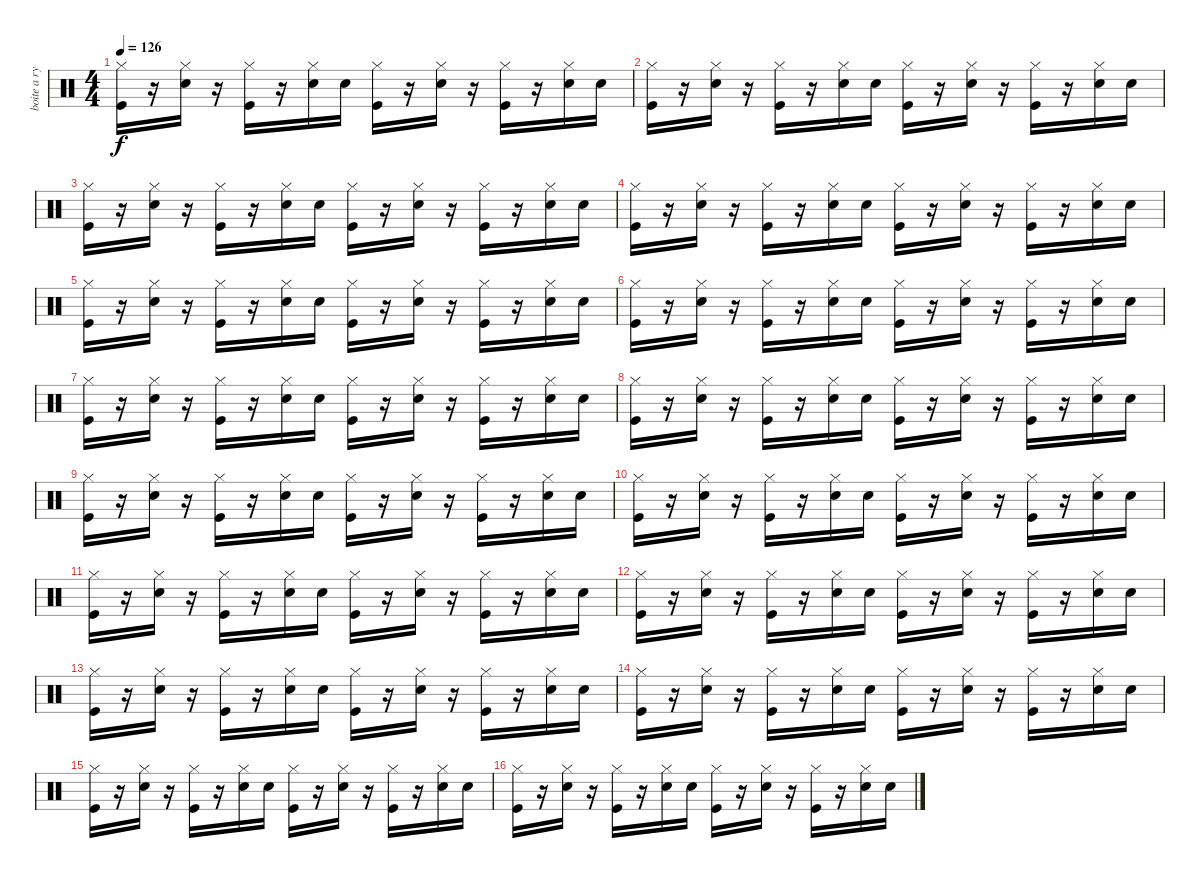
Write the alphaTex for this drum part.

\track ("boite a rythme ( Jean-Francois ) " "boite a ry") {instrument percussion}
\staff {score}
\articulation defaults
\ts (4 4)
\tempo 126
\clef neutral
\ks c
("Hi-Hat (closed)" "Kick (hit)").16{dy f} r.16 ("Hi-Hat (closed)" "Snare (hit) 2").16 r.16 ("Hi-Hat (closed)" "Kick (hit)").16 r.16 ("Hi-Hat (closed)" "Snare (hit) 2").16 "Snare (hit) 2".16 ("Hi-Hat (closed)" "Kick (hit)").16 r.16 ("Hi-Hat (closed)" "Snare (hit) 2").16 r.16 ("Hi-Hat (closed)" "Kick (hit)").16 r.16 ("Hi-Hat (closed)" "Snare (hit) 2").16 "Snare (hit) 2".16 |
("Hi-Hat (closed)" "Kick (hit)").16 r.16 ("Hi-Hat (closed)" "Snare (hit) 2").16 r.16 ("Hi-Hat (closed)" "Kick (hit)").16 r.16 ("Hi-Hat (closed)" "Snare (hit) 2").16 "Snare (hit) 2".16 ("Hi-Hat (closed)" "Kick (hit)").16 r.16 ("Hi-Hat (closed)" "Snare (hit) 2").16 r.16 ("Hi-Hat (closed)" "Kick (hit)").16 r.16 ("Hi-Hat (closed)" "Snare (hit) 2").16 "Snare (hit) 2".16 |
("Hi-Hat (closed)" "Kick (hit)").16 r.16 ("Hi-Hat (closed)" "Snare (hit) 2").16 r.16 ("Hi-Hat (closed)" "Kick (hit)").16 r.16 ("Hi-Hat (closed)" "Snare (hit) 2").16 "Snare (hit) 2".16 ("Hi-Hat (closed)" "Kick (hit)").16 r.16 ("Hi-Hat (closed)" "Snare (hit) 2").16 r.16 ("Hi-Hat (closed)" "Kick (hit)").16 r.16 ("Hi-Hat (closed)" "Snare (hit) 2").16 "Snare (hit) 2".16 |
("Hi-Hat (closed)" "Kick (hit)").16 r.16 ("Hi-Hat (closed)" "Snare (hit) 2").16 r.16 ("Hi-Hat (closed)" "Kick (hit)").16 r.16 ("Hi-Hat (closed)" "Snare (hit) 2").16 "Snare (hit) 2".16 ("Hi-Hat (closed)" "Kick (hit)").16 r.16 ("Hi-Hat (closed)" "Snare (hit) 2").16 r.16 ("Hi-Hat (closed)" "Kick (hit)").16 r.16 ("Hi-Hat (closed)" "Snare (hit) 2").16 "Snare (hit) 2".16 |
("Hi-Hat (closed)" "Kick (hit)").16 r.16 ("Hi-Hat (closed)" "Snare (hit) 2").16 r.16 ("Hi-Hat (closed)" "Kick (hit)").16 r.16 ("Hi-Hat (closed)" "Snare (hit) 2").16 "Snare (hit) 2".16 ("Hi-Hat (closed)" "Kick (hit)").16 r.16 ("Hi-Hat (closed)" "Snare (hit) 2").16 r.16 ("Hi-Hat (closed)" "Kick (hit)").16 r.16 ("Hi-Hat (closed)" "Snare (hit) 2").16 "Snare (hit) 2".16 |
("Hi-Hat (closed)" "Kick (hit)").16 r.16 ("Hi-Hat (closed)" "Snare (hit) 2").16 r.16 ("Hi-Hat (closed)" "Kick (hit)").16 r.16 ("Hi-Hat (closed)" "Snare (hit) 2").16 "Snare (hit) 2".16 ("Hi-Hat (closed)" "Kick (hit)").16 r.16 ("Hi-Hat (closed)" "Snare (hit) 2").16 r.16 ("Hi-Hat (closed)" "Kick (hit)").16 r.16 ("Hi-Hat (closed)" "Snare (hit) 2").16 "Snare (hit) 2".16 |
("Hi-Hat (closed)" "Kick (hit)").16 r.16 ("Hi-Hat (closed)" "Snare (hit) 2").16 r.16 ("Hi-Hat (closed)" "Kick (hit)").16 r.16 ("Hi-Hat (closed)" "Snare (hit) 2").16 "Snare (hit) 2".16 ("Hi-Hat (closed)" "Kick (hit)").16 r.16 ("Hi-Hat (closed)" "Snare (hit) 2").16 r.16 ("Hi-Hat (closed)" "Kick (hit)").16 r.16 ("Hi-Hat (closed)" "Snare (hit) 2").16 "Snare (hit) 2".16 |
("Hi-Hat (closed)" "Kick (hit)").16 r.16 ("Hi-Hat (closed)" "Snare (hit) 2").16 r.16 ("Hi-Hat (closed)" "Kick (hit)").16 r.16 ("Hi-Hat (closed)" "Snare (hit) 2").16 "Snare (hit) 2".16 ("Hi-Hat (closed)" "Kick (hit)").16 r.16 ("Hi-Hat (closed)" "Snare (hit) 2").16 r.16 ("Hi-Hat (closed)" "Kick (hit)").16 r.16 ("Hi-Hat (closed)" "Snare (hit) 2").16 "Snare (hit) 2".16 |
("Hi-Hat (closed)" "Kick (hit)").16 r.16 ("Hi-Hat (closed)" "Snare (hit) 2").16 r.16 ("Hi-Hat (closed)" "Kick (hit)").16 r.16 ("Hi-Hat (closed)" "Snare (hit) 2").16 "Snare (hit) 2".16 ("Hi-Hat (closed)" "Kick (hit)").16 r.16 ("Hi-Hat (closed)" "Snare (hit) 2").16 r.16 ("Hi-Hat (closed)" "Kick (hit)").16 r.16 ("Hi-Hat (closed)" "Snare (hit) 2").16 "Snare (hit) 2".16 |
("Hi-Hat (closed)" "Kick (hit)").16 r.16 ("Hi-Hat (closed)" "Snare (hit) 2").16 r.16 ("Hi-Hat (closed)" "Kick (hit)").16 r.16 ("Hi-Hat (closed)" "Snare (hit) 2").16 "Snare (hit) 2".16 ("Hi-Hat (closed)" "Kick (hit)").16 r.16 ("Hi-Hat (closed)" "Snare (hit) 2").16 r.16 ("Hi-Hat (closed)" "Kick (hit)").16 r.16 ("Hi-Hat (closed)" "Snare (hit) 2").16 "Snare (hit) 2".16 |
("Hi-Hat (closed)" "Kick (hit)").16 r.16 ("Hi-Hat (closed)" "Snare (hit) 2").16 r.16 ("Hi-Hat (closed)" "Kick (hit)").16 r.16 ("Hi-Hat (closed)" "Snare (hit) 2").16 "Snare (hit) 2".16 ("Hi-Hat (closed)" "Kick (hit)").16 r.16 ("Hi-Hat (closed)" "Snare (hit) 2").16 r.16 ("Hi-Hat (closed)" "Kick (hit)").16 r.16 ("Hi-Hat (closed)" "Snare (hit) 2").16 "Snare (hit) 2".16 |
("Hi-Hat (closed)" "Kick (hit)").16 r.16 ("Hi-Hat (closed)" "Snare (hit) 2").16 r.16 ("Hi-Hat (closed)" "Kick (hit)").16 r.16 ("Hi-Hat (closed)" "Snare (hit) 2").16 "Snare (hit) 2".16 ("Hi-Hat (closed)" "Kick (hit)").16 r.16 ("Hi-Hat (closed)" "Snare (hit) 2").16 r.16 ("Hi-Hat (closed)" "Kick (hit)").16 r.16 ("Hi-Hat (closed)" "Snare (hit) 2").16 "Snare (hit) 2".16 |
("Hi-Hat (closed)" "Kick (hit)").16 r.16 ("Hi-Hat (closed)" "Snare (hit) 2").16 r.16 ("Hi-Hat (closed)" "Kick (hit)").16 r.16 ("Hi-Hat (closed)" "Snare (hit) 2").16 "Snare (hit) 2".16 ("Hi-Hat (closed)" "Kick (hit)").16 r.16 ("Hi-Hat (closed)" "Snare (hit) 2").16 r.16 ("Hi-Hat (closed)" "Kick (hit)").16 r.16 ("Hi-Hat (closed)" "Snare (hit) 2").16 "Snare (hit) 2".16 |
("Hi-Hat (closed)" "Kick (hit)").16 r.16 ("Hi-Hat (closed)" "Snare (hit) 2").16 r.16 ("Hi-Hat (closed)" "Kick (hit)").16 r.16 ("Hi-Hat (closed)" "Snare (hit) 2").16 "Snare (hit) 2".16 ("Hi-Hat (closed)" "Kick (hit)").16 r.16 ("Hi-Hat (closed)" "Snare (hit) 2").16 r.16 ("Hi-Hat (closed)" "Kick (hit)").16 r.16 ("Hi-Hat (closed)" "Snare (hit) 2").16 "Snare (hit) 2".16 |
("Hi-Hat (closed)" "Kick (hit)").16 r.16 ("Hi-Hat (closed)" "Snare (hit) 2").16 r.16 ("Hi-Hat (closed)" "Kick (hit)").16 r.16 ("Hi-Hat (closed)" "Snare (hit) 2").16 "Snare (hit) 2".16 ("Hi-Hat (closed)" "Kick (hit)").16 r.16 ("Hi-Hat (closed)" "Snare (hit) 2").16 r.16 ("Hi-Hat (closed)" "Kick (hit)").16 r.16 ("Hi-Hat (closed)" "Snare (hit) 2").16 "Snare (hit) 2".16 |
("Hi-Hat (closed)" "Kick (hit)").16 r.16 ("Hi-Hat (closed)" "Snare (hit) 2").16 r.16 ("Hi-Hat (closed)" "Kick (hit)").16 r.16 ("Hi-Hat (closed)" "Snare (hit) 2").16 "Snare (hit) 2".16 ("Hi-Hat (closed)" "Kick (hit)").16 r.16 ("Hi-Hat (closed)" "Snare (hit) 2").16 r.16 ("Hi-Hat (closed)" "Kick (hit)").16 r.16 ("Hi-Hat (closed)" "Snare (hit) 2").16 "Snare (hit) 2".16
